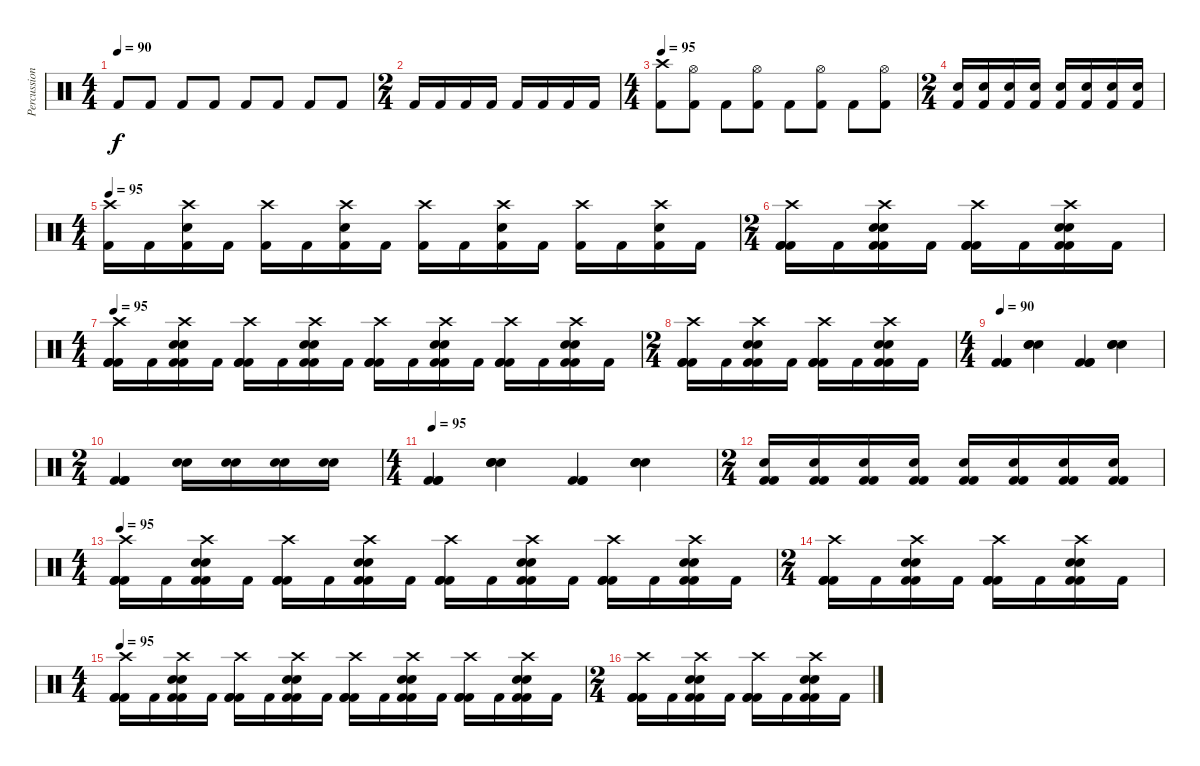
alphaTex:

\track ("Percussion" "Percussion") {instrument percussion}
\staff {score}
\articulation defaults
\ts (4 4)
\tempo 90
\clef neutral
\ks c "Kick (hit) 2".8{dy f} "Kick (hit) 2".8 "Kick (hit) 2".8 "Kick (hit) 2".8 "Kick (hit) 2".8 "Kick (hit) 2".8 "Kick (hit) 2".8 "Kick (hit) 2".8
|
\ts (2 4)
"Kick (hit) 2".16 "Kick (hit) 2".16 "Kick (hit) 2".16 "Kick (hit) 2".16 "Kick (hit) 2".16 "Kick (hit) 2".16 "Kick (hit) 2".16 "Kick (hit) 2".16 |
\ts (4 4)
\tempo 95
("Crash high (hit)" "Kick (hit) 2").8 ("Hi-Hat (open)" "Kick (hit) 2").8 "Kick (hit) 2".8 ("Hi-Hat (open)" "Kick (hit) 2").8 "Kick (hit) 2".8 ("Hi-Hat (open)" "Kick (hit) 2").8 "Kick (hit) 2".8 ("Hi-Hat (open)" "Kick (hit) 2").8 |
\ts (2 4)
("Snare (hit) 2" "Kick (hit) 2").16 ("Snare (hit) 2" "Kick (hit) 2").16 ("Snare (hit) 2" "Kick (hit) 2").16 ("Snare (hit) 2" "Kick (hit) 2").16 ("Snare (hit) 2" "Kick (hit) 2").16 ("Snare (hit) 2" "Kick (hit) 2").16 ("Snare (hit) 2" "Kick (hit) 2").16 ("Snare (hit) 2" "Kick (hit) 2").16 |
\ts (4 4)
\tempo 90
\tempo 95
("Crash high (hit)" "Kick (hit) 2").16 "Kick (hit) 2".16 ("Crash high (hit)" "Snare (hit) 2" "Kick (hit) 2").16 "Kick (hit) 2".16 ("Crash high (hit)" "Kick (hit) 2").16 "Kick (hit) 2".16 ("Crash high (hit)" "Snare (hit) 2" "Kick (hit) 2").16 "Kick (hit) 2".16 ("Crash high (hit)" "Kick (hit) 2").16 "Kick (hit) 2".16 ("Crash high (hit)" "Snare (hit) 2" "Kick (hit) 2").16 "Kick (hit) 2".16 ("Crash high (hit)" "Kick (hit) 2").16 "Kick (hit) 2".16 ("Crash high (hit)" "Snare (hit) 2" "Kick (hit) 2").16 "Kick (hit) 2".16 |
\ts (2 4)
("Crash high (hit)" "Kick (hit) 2" "Kick (hit) 2" "Kick (hit) 2").16 "Kick (hit) 2".16 ("Crash high (hit)" "Snare (hit) 2" "Snare (hit) 2" "Kick (hit) 2" "Kick (hit) 2").16 "Kick (hit) 2".16 ("Crash high (hit)" "Kick (hit) 2" "Kick (hit) 2" "Kick (hit) 2").16 "Kick (hit) 2".16 ("Crash high (hit)" "Snare (hit) 2" "Snare (hit) 2" "Kick (hit) 2" "Kick (hit) 2").16 "Kick (hit) 2".16 |
\ts (4 4)
\tempo 95
("Crash high (hit)" "Kick (hit) 2" "Kick (hit) 2" "Kick (hit) 2").16 "Kick (hit) 2".16 ("Crash high (hit)" "Snare (hit) 2" "Snare (hit) 2" "Kick (hit) 2" "Kick (hit) 2").16 "Kick (hit) 2".16 ("Crash high (hit)" "Kick (hit) 2" "Kick (hit) 2" "Kick (hit) 2").16 "Kick (hit) 2".16 ("Crash high (hit)" "Snare (hit) 2" "Snare (hit) 2" "Kick (hit) 2" "Kick (hit) 2").16 "Kick (hit) 2".16 ("Crash high (hit)" "Kick (hit) 2" "Kick (hit) 2" "Kick (hit) 2").16 "Kick (hit) 2".16 ("Crash high (hit)" "Snare (hit) 2" "Snare (hit) 2" "Kick (hit) 2" "Kick (hit) 2").16 "Kick (hit) 2".16 ("Crash high (hit)" "Kick (hit) 2" "Kick (hit) 2" "Kick (hit) 2").16 "Kick (hit) 2".16 ("Crash high (hit)" "Snare (hit) 2" "Snare (hit) 2" "Kick (hit) 2" "Kick (hit) 2").16 "Kick (hit) 2".16 |
\ts (2 4)
("Crash high (hit)" "Kick (hit) 2" "Kick (hit) 2" "Kick (hit) 2").16 "Kick (hit) 2".16 ("Crash high (hit)" "Snare (hit) 2" "Snare (hit) 2" "Kick (hit) 2" "Kick (hit) 2").16 "Kick (hit) 2".16 ("Crash high (hit)" "Kick (hit) 2" "Kick (hit) 2" "Kick (hit) 2").16 "Kick (hit) 2".16 ("Crash high (hit)" "Snare (hit) 2" "Snare (hit) 2" "Kick (hit) 2" "Kick (hit) 2").16 "Kick (hit) 2".16 |
\ts (4 4)
\tempo 90
("Kick (hit) 2" "Kick (hit) 2" "Kick (hit) 2").4 ("Snare (hit) 2" "Snare (hit) 2" "Snare (hit) 2").4 ("Kick (hit) 2" "Kick (hit) 2" "Kick (hit) 2").4 ("Snare (hit) 2" "Snare (hit) 2" "Snare (hit) 2").4 |
\ts (2 4)
("Kick (hit) 2" "Kick (hit) 2" "Kick (hit) 2").4 ("Snare (hit) 2" "Snare (hit) 2").16 ("Snare (hit) 2" "Snare (hit) 2").16 ("Snare (hit) 2" "Snare (hit) 2").16 ("Snare (hit) 2" "Snare (hit) 2").16 |
\ts (4 4)
\tempo 95
("Kick (hit) 2" "Kick (hit) 2" "Kick (hit) 2").4 ("Snare (hit) 2" "Snare (hit) 2" "Snare (hit) 2").4 ("Kick (hit) 2" "Kick (hit) 2" "Kick (hit) 2").4 ("Snare (hit) 2" "Snare (hit) 2" "Snare (hit) 2").4 |
\ts (2 4)
("Snare (hit) 2" "Kick (hit) 2" "Kick (hit) 2").16 ("Snare (hit) 2" "Kick (hit) 2" "Kick (hit) 2").16 ("Snare (hit) 2" "Kick (hit) 2" "Kick (hit) 2").16 ("Snare (hit) 2" "Kick (hit) 2" "Kick (hit) 2").16 ("Snare (hit) 2" "Kick (hit) 2" "Kick (hit) 2").16 ("Snare (hit) 2" "Kick (hit) 2" "Kick (hit) 2").16 ("Snare (hit) 2" "Kick (hit) 2" "Kick (hit) 2").16 ("Snare (hit) 2" "Kick (hit) 2" "Kick (hit) 2").16 |
\ts (4 4)
\tempo 90
\tempo 95
("Crash high (hit)" "Kick (hit) 2" "Kick (hit) 2" "Kick (hit) 2").16 "Kick (hit) 2".16 ("Crash high (hit)" "Snare (hit) 2" "Snare (hit) 2" "Kick (hit) 2" "Kick (hit) 2").16 "Kick (hit) 2".16 ("Crash high (hit)" "Kick (hit) 2" "Kick (hit) 2" "Kick (hit) 2").16 "Kick (hit) 2".16 ("Crash high (hit)" "Snare (hit) 2" "Snare (hit) 2" "Kick (hit) 2" "Kick (hit) 2").16 "Kick (hit) 2".16 ("Crash high (hit)" "Kick (hit) 2" "Kick (hit) 2" "Kick (hit) 2").16 "Kick (hit) 2".16 ("Crash high (hit)" "Snare (hit) 2" "Snare (hit) 2" "Kick (hit) 2" "Kick (hit) 2").16 "Kick (hit) 2".16 ("Crash high (hit)" "Kick (hit) 2" "Kick (hit) 2" "Kick (hit) 2").16 "Kick (hit) 2".16 ("Crash high (hit)" "Snare (hit) 2" "Snare (hit) 2" "Kick (hit) 2" "Kick (hit) 2").16 "Kick (hit) 2".16 |
\ts (2 4)
("Crash high (hit)" "Kick (hit) 2" "Kick (hit) 2" "Kick (hit) 2").16 "Kick (hit) 2".16 ("Crash high (hit)" "Snare (hit) 2" "Snare (hit) 2" "Kick (hit) 2" "Kick (hit) 2").16 "Kick (hit) 2".16 ("Crash high (hit)" "Kick (hit) 2" "Kick (hit) 2" "Kick (hit) 2").16 "Kick (hit) 2".16 ("Crash high (hit)" "Snare (hit) 2" "Snare (hit) 2" "Kick (hit) 2" "Kick (hit) 2").16 "Kick (hit) 2".16 |
\ts (4 4)
\tempo 95
("Crash high (hit)" "Kick (hit) 2" "Kick (hit) 2" "Kick (hit) 2").16 "Kick (hit) 2".16 ("Crash high (hit)" "Snare (hit) 2" "Snare (hit) 2" "Kick (hit) 2" "Kick (hit) 2").16 "Kick (hit) 2".16 ("Crash high (hit)" "Kick (hit) 2" "Kick (hit) 2" "Kick (hit) 2").16 "Kick (hit) 2".16 ("Crash high (hit)" "Snare (hit) 2" "Snare (hit) 2" "Kick (hit) 2" "Kick (hit) 2").16 "Kick (hit) 2".16 ("Crash high (hit)" "Kick (hit) 2" "Kick (hit) 2" "Kick (hit) 2").16 "Kick (hit) 2".16 ("Crash high (hit)" "Snare (hit) 2" "Snare (hit) 2" "Kick (hit) 2" "Kick (hit) 2").16 "Kick (hit) 2".16 ("Crash high (hit)" "Kick (hit) 2" "Kick (hit) 2" "Kick (hit) 2").16 "Kick (hit) 2".16 ("Crash high (hit)" "Snare (hit) 2" "Snare (hit) 2" "Kick (hit) 2" "Kick (hit) 2").16 "Kick (hit) 2".16 |
\ts (2 4)
("Crash high (hit)" "Kick (hit) 2" "Kick (hit) 2" "Kick (hit) 2").16 "Kick (hit) 2".16 ("Crash high (hit)" "Snare (hit) 2" "Snare (hit) 2" "Kick (hit) 2" "Kick (hit) 2").16 "Kick (hit) 2".16 ("Crash high (hit)" "Kick (hit) 2" "Kick (hit) 2" "Kick (hit) 2").16 "Kick (hit) 2".16 ("Crash high (hit)" "Snare (hit) 2" "Snare (hit) 2" "Kick (hit) 2" "Kick (hit) 2").16 "Kick (hit) 2".16
